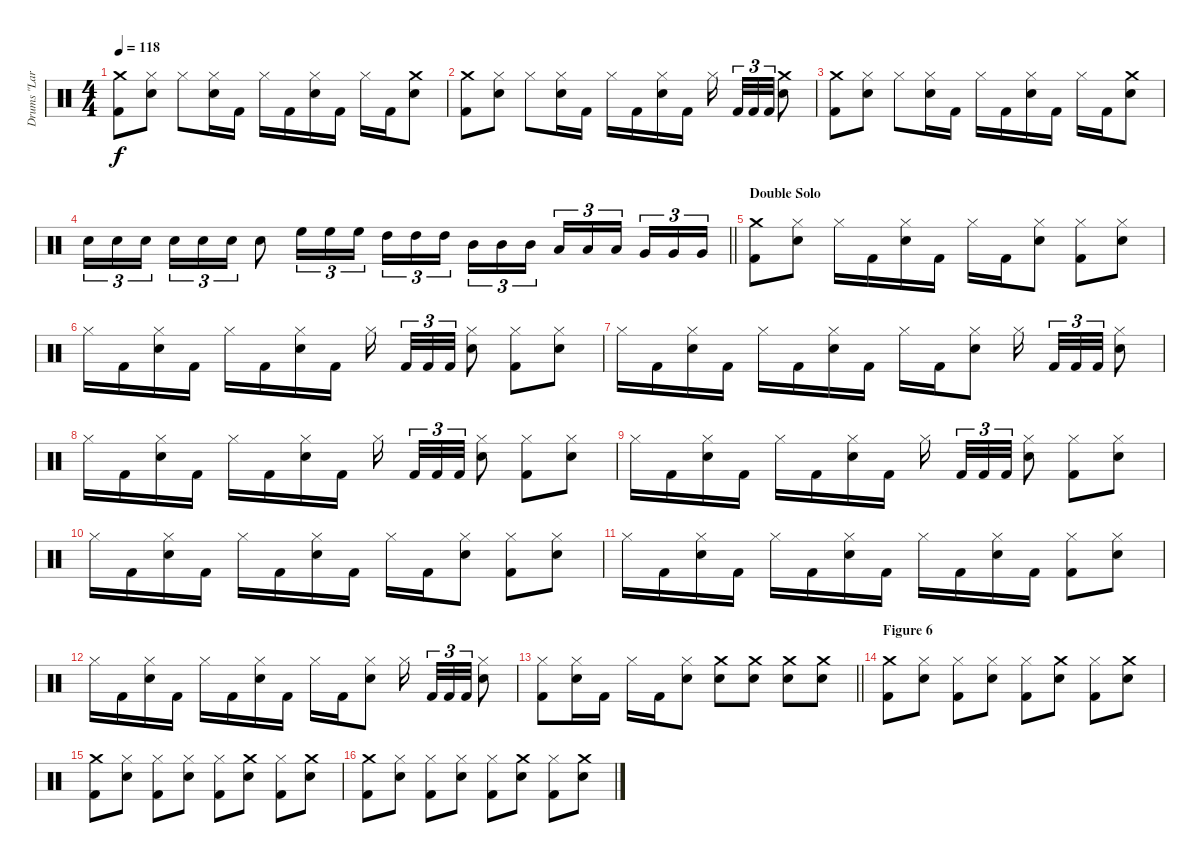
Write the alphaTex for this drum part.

\track ("Drums \"Lars Ulrich\"" "Drums \"Lar") {instrument percussion}
\staff {score}
\articulation defaults
\ts (4 4)
\tempo 118
\clef neutral
\ks c
("Crash medium (hit)" "Kick (hit) 2").8{dy f} ("Hi-Hat (closed)" "Electric Snare (hit)").8 "Hi-Hat (closed)".8 ("Hi-Hat (closed)" "Electric Snare (hit)").16 "Kick (hit) 2".16 "Hi-Hat (closed)".16 "Kick (hit) 2".16 ("Hi-Hat (closed)" "Electric Snare (hit)").16 "Kick (hit) 2".16 "Hi-Hat (closed)".16 "Kick (hit) 2".16 ("Crash medium (hit)" "Electric Snare (hit)").8 |
("Crash medium (hit)" "Kick (hit) 2").8 ("Hi-Hat (closed)" "Electric Snare (hit)").8 "Hi-Hat (closed)".8 ("Hi-Hat (closed)" "Electric Snare (hit)").16 "Kick (hit) 2".16 "Hi-Hat (closed)".16 "Kick (hit) 2".16 ("Hi-Hat (closed)" "Electric Snare (hit)").16 "Kick (hit) 2".16 "Hi-Hat (closed)".16{beam splitsecondary} "Kick (hit) 2".32{tu (3 2)} "Kick (hit) 2".32{tu (3 2)} "Kick (hit) 2".32{tu (3 2)} ("Crash medium (hit)" "Electric Snare (hit)").8 |
("Crash medium (hit)" "Kick (hit) 2").8 ("Hi-Hat (closed)" "Electric Snare (hit)").8 "Hi-Hat (closed)".8 ("Hi-Hat (closed)" "Electric Snare (hit)").16 "Kick (hit) 2".16 "Hi-Hat (closed)".16 "Kick (hit) 2".16 ("Hi-Hat (closed)" "Electric Snare (hit)").16 "Kick (hit) 2".16 "Hi-Hat (closed)".16 "Kick (hit) 2".16 ("Crash medium (hit)" "Electric Snare (hit)").8 |
\barLineRight lightlight "Electric Snare (hit)".16{tu (3 2)} "Electric Snare (hit)".16{tu (3 2)} "Electric Snare (hit)".16{tu (3 2) beam splitsecondary} "Electric Snare (hit)".16{tu (3 2)} "Electric Snare (hit)".16{tu (3 2)} "Electric Snare (hit)".16{tu (3 2)} "Electric Snare (hit)".8 "High Floor Tom (hit)".16{tu (3 2)} "High Floor Tom (hit)".16{tu (3 2)} "High Floor Tom (hit)".16{tu (3 2)} "High Tom (hit)".16{tu (3 2)} "High Tom (hit)".16{tu (3 2)} "High Tom (hit)".16{tu (3 2) beam splitsecondary} "Mid Tom (hit)".16{tu (3 2)} "Mid Tom (hit)".16{tu (3 2)} "Mid Tom (hit)".16{tu (3 2)} "Low Tom (hit)".16{tu (3 2)} "Low Tom (hit)".16{tu (3 2)} "Low Tom (hit)".16{tu (3 2) beam splitsecondary} "Very Low Tom (hit)".16{tu (3 2)} "Very Low Tom (hit)".16{tu (3 2)} "Very Low Tom (hit)".16{tu (3 2)}
|
\section ("" "Double Solo")
("Crash medium (hit)" "Kick (hit) 2").8 ("Hi-Hat (closed)" "Electric Snare (hit)").8 "Hi-Hat (closed)".16 "Kick (hit) 2".16 ("Hi-Hat (closed)" "Electric Snare (hit)").16 "Kick (hit) 2".16 "Hi-Hat (closed)".16 "Kick (hit) 2".16 ("Hi-Hat (closed)" "Electric Snare (hit)").8 ("Hi-Hat (closed)" "Kick (hit) 2").8 ("Hi-Hat (closed)" "Electric Snare (hit)").8 |
"Hi-Hat (closed)".16 "Kick (hit) 2".16 ("Hi-Hat (closed)" "Electric Snare (hit)").16 "Kick (hit) 2".16 "Hi-Hat (closed)".16 "Kick (hit) 2".16 ("Hi-Hat (closed)" "Electric Snare (hit)").16 "Kick (hit) 2".16 "Hi-Hat (closed)".16{beam splitsecondary} "Kick (hit) 2".32{tu (3 2)} "Kick (hit) 2".32{tu (3 2)} "Kick (hit) 2".32{tu (3 2)} ("Hi-Hat (closed)" "Electric Snare (hit)").8 ("Hi-Hat (closed)" "Kick (hit) 2").8 ("Hi-Hat (closed)" "Electric Snare (hit)").8 |
"Hi-Hat (closed)".16 "Kick (hit) 2".16 ("Hi-Hat (closed)" "Electric Snare (hit)").16 "Kick (hit) 2".16 "Hi-Hat (closed)".16 "Kick (hit) 2".16 ("Hi-Hat (closed)" "Electric Snare (hit)").16 "Kick (hit) 2".16 "Hi-Hat (closed)".16 "Kick (hit) 2".16 ("Hi-Hat (closed)" "Electric Snare (hit)").8 "Hi-Hat (closed)".16{beam splitsecondary} "Kick (hit) 2".32{tu (3 2)} "Kick (hit) 2".32{tu (3 2)} "Kick (hit) 2".32{tu (3 2)} ("Hi-Hat (closed)" "Electric Snare (hit)").8 |
"Hi-Hat (closed)".16 "Kick (hit) 2".16 ("Hi-Hat (closed)" "Electric Snare (hit)").16 "Kick (hit) 2".16 "Hi-Hat (closed)".16 "Kick (hit) 2".16 ("Hi-Hat (closed)" "Electric Snare (hit)").16 "Kick (hit) 2".16 "Hi-Hat (closed)".16{beam splitsecondary} "Kick (hit) 2".32{tu (3 2)} "Kick (hit) 2".32{tu (3 2)} "Kick (hit) 2".32{tu (3 2)} ("Hi-Hat (closed)" "Electric Snare (hit)").8 ("Hi-Hat (closed)" "Kick (hit) 2").8 ("Hi-Hat (closed)" "Electric Snare (hit)").8 |
"Hi-Hat (closed)".16 "Kick (hit) 2".16 ("Hi-Hat (closed)" "Electric Snare (hit)").16 "Kick (hit) 2".16 "Hi-Hat (closed)".16 "Kick (hit) 2".16 ("Hi-Hat (closed)" "Electric Snare (hit)").16 "Kick (hit) 2".16 "Hi-Hat (closed)".16{beam splitsecondary} "Kick (hit) 2".32{tu (3 2)} "Kick (hit) 2".32{tu (3 2)} "Kick (hit) 2".32{tu (3 2)} ("Hi-Hat (closed)" "Electric Snare (hit)").8 ("Hi-Hat (closed)" "Kick (hit) 2").8 ("Hi-Hat (closed)" "Electric Snare (hit)").8 |
"Hi-Hat (closed)".16 "Kick (hit) 2".16 ("Hi-Hat (closed)" "Electric Snare (hit)").16 "Kick (hit) 2".16 "Hi-Hat (closed)".16 "Kick (hit) 2".16 ("Hi-Hat (closed)" "Electric Snare (hit)").16 "Kick (hit) 2".16 "Hi-Hat (closed)".16 "Kick (hit) 2".16 ("Hi-Hat (closed)" "Electric Snare (hit)").8 ("Hi-Hat (closed)" "Kick (hit) 2").8 ("Hi-Hat (closed)" "Electric Snare (hit)").8 |
"Hi-Hat (closed)".16 "Kick (hit) 2".16 ("Hi-Hat (closed)" "Electric Snare (hit)").16 "Kick (hit) 2".16 "Hi-Hat (closed)".16 "Kick (hit) 2".16 ("Hi-Hat (closed)" "Electric Snare (hit)").16 "Kick (hit) 2".16 "Hi-Hat (closed)".16 "Kick (hit) 2".16 ("Hi-Hat (closed)" "Electric Snare (hit)").16 "Kick (hit) 2".16 ("Hi-Hat (closed)" "Kick (hit) 2").8 ("Hi-Hat (closed)" "Electric Snare (hit)").8 |
"Hi-Hat (closed)".16 "Kick (hit) 2".16 ("Hi-Hat (closed)" "Electric Snare (hit)").16 "Kick (hit) 2".16 "Hi-Hat (closed)".16 "Kick (hit) 2".16 ("Hi-Hat (closed)" "Electric Snare (hit)").16 "Kick (hit) 2".16 "Hi-Hat (closed)".16 "Kick (hit) 2".16 ("Hi-Hat (closed)" "Electric Snare (hit)").8 "Hi-Hat (closed)".16{beam splitsecondary} "Kick (hit) 2".32{tu (3 2)} "Kick (hit) 2".32{tu (3 2)} "Kick (hit) 2".32{tu (3 2)} ("Hi-Hat (closed)" "Electric Snare (hit)").8 |
\barLineRight lightlight
("Hi-Hat (closed)" "Kick (hit) 2").8 ("Hi-Hat (closed)" "Electric Snare (hit)").16 "Kick (hit) 2".16 "Hi-Hat (closed)".16 "Kick (hit) 2".16 ("Hi-Hat (closed)" "Electric Snare (hit)").8 ("Crash medium (hit)" "Electric Snare (hit)").8 ("Crash medium (hit)" "Electric Snare (hit)").8 ("Crash medium (hit)" "Electric Snare (hit)").8 ("Crash medium (hit)" "Electric Snare (hit)").8 |
\section ("" "Figure 6")
("Crash medium (hit)" "Kick (hit) 2").8 ("Hi-Hat (closed)" "Electric Snare (hit)").8 ("Hi-Hat (closed)" "Kick (hit) 2").8 ("Hi-Hat (closed)" "Electric Snare (hit)").8 ("Hi-Hat (closed)" "Kick (hit) 2").8 ("Crash medium (hit)" "Electric Snare (hit)").8 ("Hi-Hat (closed)" "Kick (hit) 2").8 ("Crash medium (hit)" "Electric Snare (hit)").8 |
("Crash medium (hit)" "Kick (hit) 2").8 ("Hi-Hat (closed)" "Electric Snare (hit)").8 ("Hi-Hat (closed)" "Kick (hit) 2").8 ("Hi-Hat (closed)" "Electric Snare (hit)").8 ("Hi-Hat (closed)" "Kick (hit) 2").8 ("Crash medium (hit)" "Electric Snare (hit)").8 ("Hi-Hat (closed)" "Kick (hit) 2").8 ("Crash medium (hit)" "Electric Snare (hit)").8 |
("Crash medium (hit)" "Kick (hit) 2").8 ("Hi-Hat (closed)" "Electric Snare (hit)").8 ("Hi-Hat (closed)" "Kick (hit) 2").8 ("Hi-Hat (closed)" "Electric Snare (hit)").8 ("Hi-Hat (closed)" "Kick (hit) 2").8 ("Crash medium (hit)" "Electric Snare (hit)").8 ("Hi-Hat (closed)" "Kick (hit) 2").8 ("Crash medium (hit)" "Electric Snare (hit)").8
